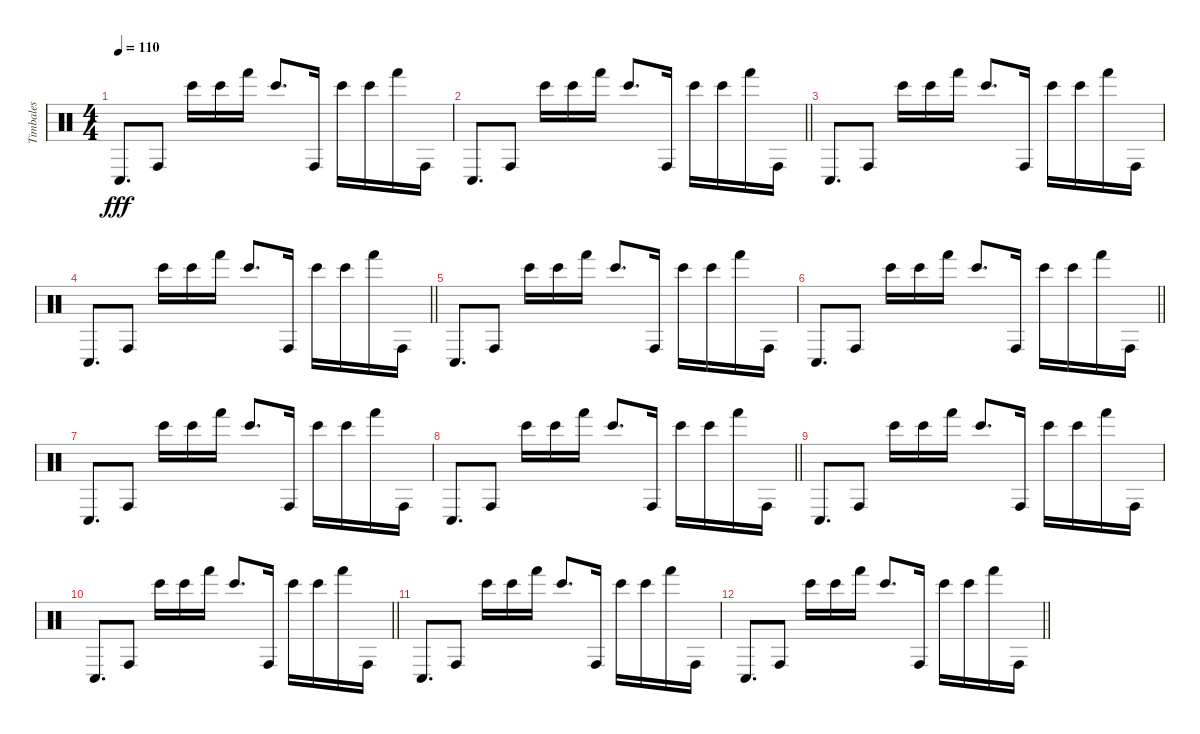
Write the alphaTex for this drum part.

\track ("Timbales" "Timbales") {instrument percussion}
\staff {score}
\articulation defaults
\ts (4 4)
\tempo 110
\clef neutral
\ks c "Conga low (hit)".8{d dy fff} "Conga high (hit)".8 "Bongo High (hit)".16 "Bongo High (hit)".16 "Hand (hit)".16 "Bongo High (hit)".8{d} "Conga high (hit)".16 "Bongo High (hit)".16 "Bongo High (hit)".16 "Hand (hit)".16 "Conga high (hit)".16
|
\barLineRight lightlight "Conga low (hit)".8{d} "Conga high (hit)".8 "Bongo High (hit)".16 "Bongo High (hit)".16 "Hand (hit)".16 "Bongo High (hit)".8{d} "Conga high (hit)".16 "Bongo High (hit)".16 "Bongo High (hit)".16 "Hand (hit)".16 "Conga high (hit)".16
|
"Conga low (hit)".8{d} "Conga high (hit)".8 "Bongo High (hit)".16 "Bongo High (hit)".16 "Hand (hit)".16 "Bongo High (hit)".8{d} "Conga high (hit)".16 "Bongo High (hit)".16 "Bongo High (hit)".16 "Hand (hit)".16 "Conga high (hit)".16 |
\barLineRight lightlight "Conga low (hit)".8{d} "Conga high (hit)".8 "Bongo High (hit)".16 "Bongo High (hit)".16 "Hand (hit)".16 "Bongo High (hit)".8{d} "Conga high (hit)".16 "Bongo High (hit)".16 "Bongo High (hit)".16 "Hand (hit)".16 "Conga high (hit)".16
|
"Conga low (hit)".8{d} "Conga high (hit)".8 "Bongo High (hit)".16 "Bongo High (hit)".16 "Hand (hit)".16 "Bongo High (hit)".8{d} "Conga high (hit)".16 "Bongo High (hit)".16 "Bongo High (hit)".16 "Hand (hit)".16 "Conga high (hit)".16 |
\barLineRight lightlight "Conga low (hit)".8{d} "Conga high (hit)".8 "Bongo High (hit)".16 "Bongo High (hit)".16 "Hand (hit)".16 "Bongo High (hit)".8{d} "Conga high (hit)".16 "Bongo High (hit)".16 "Bongo High (hit)".16 "Hand (hit)".16 "Conga high (hit)".16
|
"Conga low (hit)".8{d} "Conga high (hit)".8 "Bongo High (hit)".16 "Bongo High (hit)".16 "Hand (hit)".16 "Bongo High (hit)".8{d} "Conga high (hit)".16 "Bongo High (hit)".16 "Bongo High (hit)".16 "Hand (hit)".16 "Conga high (hit)".16 |
\barLineRight lightlight "Conga low (hit)".8{d} "Conga high (hit)".8 "Bongo High (hit)".16 "Bongo High (hit)".16 "Hand (hit)".16 "Bongo High (hit)".8{d} "Conga high (hit)".16 "Bongo High (hit)".16 "Bongo High (hit)".16 "Hand (hit)".16 "Conga high (hit)".16
|
"Conga low (hit)".8{d} "Conga high (hit)".8 "Bongo High (hit)".16 "Bongo High (hit)".16 "Hand (hit)".16 "Bongo High (hit)".8{d} "Conga high (hit)".16 "Bongo High (hit)".16 "Bongo High (hit)".16 "Hand (hit)".16 "Conga high (hit)".16 |
\barLineRight lightlight "Conga low (hit)".8{d} "Conga high (hit)".8 "Bongo High (hit)".16 "Bongo High (hit)".16 "Hand (hit)".16 "Bongo High (hit)".8{d} "Conga high (hit)".16 "Bongo High (hit)".16 "Bongo High (hit)".16 "Hand (hit)".16 "Conga high (hit)".16
|
"Conga low (hit)".8{d} "Conga high (hit)".8 "Bongo High (hit)".16 "Bongo High (hit)".16 "Hand (hit)".16 "Bongo High (hit)".8{d} "Conga high (hit)".16 "Bongo High (hit)".16 "Bongo High (hit)".16 "Hand (hit)".16 "Conga high (hit)".16 |
\barLineRight lightlight "Conga low (hit)".8{d} "Conga high (hit)".8 "Bongo High (hit)".16 "Bongo High (hit)".16 "Hand (hit)".16 "Bongo High (hit)".8{d} "Conga high (hit)".16 "Bongo High (hit)".16 "Bongo High (hit)".16 "Hand (hit)".16 "Conga high (hit)".16
